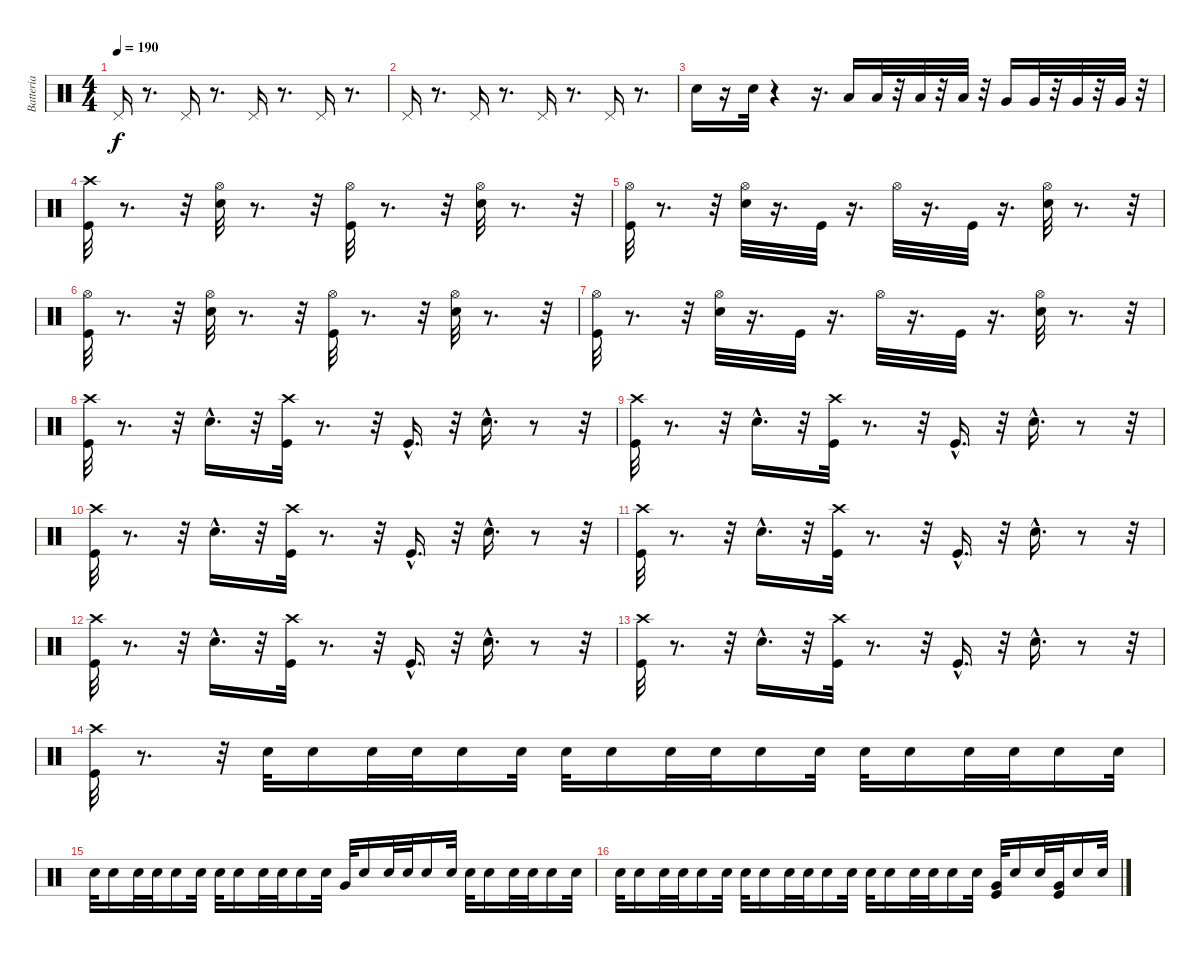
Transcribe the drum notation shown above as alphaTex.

\track ("Batteria" "Batteria") {instrument percussion}
\staff {score}
\articulation defaults
\ts (4 4)
\tempo 190
\clef neutral
\ks c "Pedal Hi-Hat (hit)".16{dy f}
r.8{d} "Pedal Hi-Hat (hit)".16 r.8{d} "Pedal Hi-Hat (hit)".16 r.8{d} "Pedal Hi-Hat (hit)".16 r.8{d} |
"Pedal Hi-Hat (hit)".16 r.8{d} "Pedal Hi-Hat (hit)".16 r.8{d} "Pedal Hi-Hat (hit)".16 r.8{d} "Pedal Hi-Hat (hit)".16 r.8{d} |
"Snare (hit) 2".16 r.16 "Snare (hit) 2".32 r.4 r.16{d} "Low Tom (hit)".16 "Low Tom (hit)".32 r.32 "Low Tom (hit)".32 r.32 "Low Tom (hit)".32 r.32 "Very Low Tom (hit)".16 "Very Low Tom (hit)".32 r.32 "Very Low Tom (hit)".32 r.32 "Very Low Tom (hit)".32 r.32 |
("Crash high (hit)" "Kick (hit)").32 r.8{d} r.32 ("Hi-Hat (open)" "Snare (hit) 2").32 r.8{d} r.32 ("Hi-Hat (open)" "Kick (hit)").32 r.8{d} r.32 ("Hi-Hat (open)" "Snare (hit) 2").32 r.8{d} r.32 |
("Hi-Hat (open)" "Kick (hit)").32 r.8{d} r.32 ("Hi-Hat (open)" "Snare (hit) 2").32 r.16{d} "Kick (hit)".32 r.16{d} "Hi-Hat (open)".32 r.16{d} "Kick (hit)".32 r.16{d} ("Snare (hit) 2" "Hi-Hat (open)").32 r.8{d} r.32 |
("Kick (hit)" "Hi-Hat (open)").32 r.8{d} r.32 ("Hi-Hat (open)" "Snare (hit) 2").32 r.8{d} r.32 ("Hi-Hat (open)" "Kick (hit)").32 r.8{d} r.32 ("Snare (hit) 2" "Hi-Hat (open)").32 r.8{d} r.32 |
("Hi-Hat (open)" "Kick (hit)").32 r.8{d} r.32 ("Snare (hit) 2" "Hi-Hat (open)").32 r.16{d} "Kick (hit)".32 r.16{d} "Hi-Hat (open)".32 r.16{d} "Kick (hit)".32 r.16{d} ("Snare (hit) 2" "Hi-Hat (open)").32 r.8{d} r.32 |
("Kick (hit)" "Crash high (hit)").32 r.8{d} r.32 "Snare (hit) 2"{hac}.16{d} r.32 ("Crash high (hit)" "Kick (hit)").32 r.8{d} r.32 "Kick (hit)"{hac}.16{d} r.32 "Snare (hit) 2"{hac}.16{d} r.8 r.32 |
("Kick (hit)" "Crash high (hit)").32 r.8{d} r.32 "Snare (hit) 2"{hac}.16{d} r.32 ("Crash high (hit)" "Kick (hit)").32 r.8{d} r.32 "Kick (hit)"{hac}.16{d} r.32 "Snare (hit) 2"{hac}.16{d} r.8 r.32 |
("Kick (hit)" "Crash high (hit)").32 r.8{d} r.32 "Snare (hit) 2"{hac}.16{d} r.32 ("Crash high (hit)" "Kick (hit)").32 r.8{d} r.32 "Kick (hit)"{hac}.16{d} r.32 "Snare (hit) 2"{hac}.16{d} r.8 r.32 |
("Kick (hit)" "Crash high (hit)").32 r.8{d} r.32 "Snare (hit) 2"{hac}.16{d} r.32 ("Crash high (hit)" "Kick (hit)").32 r.8{d} r.32 "Kick (hit)"{hac}.16{d} r.32 "Snare (hit) 2"{hac}.16{d} r.8 r.32 |
("Kick (hit)" "Crash high (hit)").32 r.8{d} r.32 "Snare (hit) 2"{hac}.16{d} r.32 ("Crash high (hit)" "Kick (hit)").32 r.8{d} r.32 "Kick (hit)"{hac}.16{d} r.32 "Snare (hit) 2"{hac}.16{d} r.8 r.32 |
("Kick (hit)" "Crash high (hit)").32 r.8{d} r.32 "Snare (hit) 2"{hac}.16{d} r.32 ("Crash high (hit)" "Kick (hit)").32 r.8{d} r.32 "Kick (hit)"{hac}.16{d} r.32 "Snare (hit) 2"{hac}.16{d} r.8 r.32 |
("Crash high (hit)" "Kick (hit)").32 r.8{d} r.32 "Snare (hit) 2".32 "Snare (hit) 2".16 "Snare (hit) 2".32 "Snare (hit) 2".32 "Snare (hit) 2".16 "Snare (hit) 2".32 "Snare (hit) 2".32 "Snare (hit) 2".16 "Snare (hit) 2".32 "Snare (hit) 2".32 "Snare (hit) 2".16 "Snare (hit) 2".32 "Snare (hit) 2".32 "Snare (hit) 2".16 "Snare (hit) 2".32 "Snare (hit) 2".32 "Snare (hit) 2".16 "Snare (hit) 2".32 |
"Snare (hit) 2".32 "Snare (hit) 2".16 "Snare (hit) 2".32 "Snare (hit) 2".32 "Snare (hit) 2".16 "Snare (hit) 2".32 "Snare (hit) 2".32 "Snare (hit) 2".16 "Snare (hit) 2".32 "Snare (hit) 2".32 "Snare (hit) 2".16 "Snare (hit) 2".32 "Very Low Tom (hit)".32 "Snare (hit) 2".16 "Snare (hit) 2".32 "Snare (hit) 2".32 "Snare (hit) 2".16 "Snare (hit) 2".32 "Snare (hit) 2".32 "Snare (hit) 2".16 "Snare (hit) 2".32 "Snare (hit) 2".32 "Snare (hit) 2".16 "Snare (hit) 2".32 |
"Snare (hit) 2".32 "Snare (hit) 2".16 "Snare (hit) 2".32 "Snare (hit) 2".32 "Snare (hit) 2".16 "Snare (hit) 2".32 "Snare (hit) 2".32 "Snare (hit) 2".16 "Snare (hit) 2".32 "Snare (hit) 2".32 "Snare (hit) 2".16 "Snare (hit) 2".32 "Snare (hit) 2".32 "Snare (hit) 2".16 "Snare (hit) 2".32 "Snare (hit) 2".32 "Snare (hit) 2".16 "Snare (hit) 2".32 ("Kick (hit)" "Very Low Tom (hit)").32 "Snare (hit) 2".16 "Snare (hit) 2".32 ("Kick (hit)" "Very Low Tom (hit)").32 "Snare (hit) 2".16 "Snare (hit) 2".32
